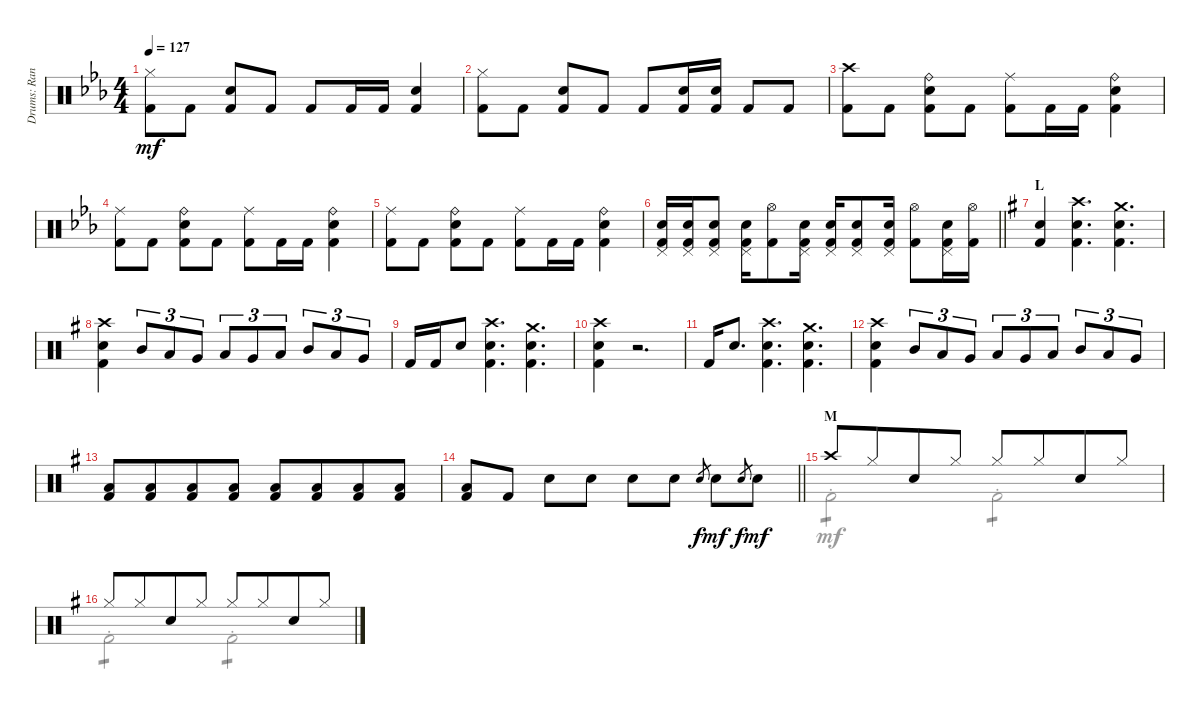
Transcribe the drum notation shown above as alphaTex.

\track ("Drums: Randy" "Drums: Ran") {instrument percussion}
\staff {score}
\articulation defaults
\voice
\ts (4 4)
\tempo 127
\clef neutral
\ks eb
("Hi-Hat (closed)" "Kick (hit) 2").8{dy mf} "Kick (hit) 2".8 ("Snare (hit) 2" "Kick (hit) 2").8 "Kick (hit) 2".8 "Kick (hit) 2".8 "Kick (hit) 2".16 "Kick (hit) 2".16 ("Snare (hit) 2" "Kick (hit) 2").4 |
("Hi-Hat (closed)" "Kick (hit) 2").8 "Kick (hit) 2".8 ("Snare (hit) 2" "Kick (hit) 2").8 "Kick (hit) 2".8 "Kick (hit) 2".8 ("Snare (hit) 2" "Kick (hit) 2").16 ("Snare (hit) 2" "Kick (hit) 2").16 "Kick (hit) 2".8 "Kick (hit) 2".8 |
("Crash high (hit)" "Kick (hit) 2").8 "Kick (hit) 2".8 ("Ride (bell)" "Snare (hit) 2" "Kick (hit) 2").8 "Kick (hit) 2".8 ("Ride (middle)" "Kick (hit) 2").8 "Kick (hit) 2".16 "Kick (hit) 2".16 ("Ride (bell)" "Snare (hit) 2" "Kick (hit) 2").4 |
("Ride (middle)" "Kick (hit) 2").8 "Kick (hit) 2".8 ("Ride (bell)" "Snare (hit) 2" "Kick (hit) 2").8 "Kick (hit) 2".8 ("Ride (middle)" "Kick (hit) 2").8 "Kick (hit) 2".16 "Kick (hit) 2".16 ("Ride (bell)" "Snare (hit) 2" "Kick (hit) 2").4 |
("Ride (middle)" "Kick (hit) 2").8 "Kick (hit) 2".8 ("Ride (bell)" "Snare (hit) 2" "Kick (hit) 2").8 "Kick (hit) 2".8 ("Ride (middle)" "Kick (hit) 2").8 "Kick (hit) 2".16 "Kick (hit) 2".16 ("Ride (bell)" "Snare (hit) 2" "Kick (hit) 2").4 |
\barLineRight lightlight
("Pedal Hi-Hat (hit)" "Snare (hit) 2" "Kick (hit) 2").16 ("Pedal Hi-Hat (hit)" "Snare (hit) 2" "Kick (hit) 2").16 ("Pedal Hi-Hat (hit)" "Snare (hit) 2" "Kick (hit) 2").8 ("Pedal Hi-Hat (hit)" "Snare (hit) 2" "Kick (hit) 2").16 ("Hi-Hat (open)" "Kick (hit) 2").8 ("Pedal Hi-Hat (hit)" "Snare (hit) 2" "Kick (hit) 2").16 ("Pedal Hi-Hat (hit)" "Snare (hit) 2" "Kick (hit) 2").16 ("Pedal Hi-Hat (hit)" "Snare (hit) 2" "Kick (hit) 2").8 ("Pedal Hi-Hat (hit)" "Snare (hit) 2" "Kick (hit) 2").16 ("Hi-Hat (open)" "Kick (hit) 2").8 ("Pedal Hi-Hat (hit)" "Snare (hit) 2" "Kick (hit) 2").16 ("Hi-Hat (open)" "Kick (hit) 2").16 |
\section ("" "L")
\ks g
("Snare (hit) 2" "Kick (hit) 2").4 ("Crash high (hit)" "Snare (hit) 2" "Kick (hit) 2").4{d} ("Crash medium (hit)" "Snare (hit) 2" "Kick (hit) 2").4{d} |
("Crash high (hit)" "Snare (hit) 2" "Kick (hit) 2").4 "Mid Tom (hit)".8{tu (3 2)} "Low Tom (hit)".8{tu (3 2)} "Very Low Tom (hit)".8{tu (3 2)} "Low Floor Tom (hit)".8{tu (3 2)} "Very Low Tom (hit)".8{tu (3 2)} "Low Floor Tom (hit)".8{tu (3 2)} "Mid Tom (hit)".8{tu (3 2)} "Low Tom (hit)".8{tu (3 2)} "Very Low Tom (hit)".8{tu (3 2)} |
"Kick (hit) 2".16 "Kick (hit) 2".16 "Snare (hit) 2".8 ("Crash high (hit)" "Snare (hit) 2" "Kick (hit) 2").4{d} ("Crash medium (hit)" "Snare (hit) 2" "Kick (hit) 2").4{d} |
("Crash high (hit)" "Snare (hit) 2" "Kick (hit) 2").4 r.2{d} |
"Kick (hit) 2".16 "Snare (hit) 2".8{d} ("Crash high (hit)" "Snare (hit) 2" "Kick (hit) 2").4{d} ("Crash medium (hit)" "Snare (hit) 2" "Kick (hit) 2").4{d} |
("Crash high (hit)" "Snare (hit) 2" "Kick (hit) 2").4 "Mid Tom (hit)".8{tu (3 2)} "Low Tom (hit)".8{tu (3 2)} "Very Low Tom (hit)".8{tu (3 2)} "Low Floor Tom (hit)".8{tu (3 2)} "Very Low Tom (hit)".8{tu (3 2)} "Low Floor Tom (hit)".8{tu (3 2)} "Mid Tom (hit)".8{tu (3 2)} "Low Tom (hit)".8{tu (3 2)} "Very Low Tom (hit)".8{tu (3 2)} |
("Low Tom (hit)" "Kick (hit) 2").8 ("Low Tom (hit)" "Kick (hit) 2").8{beam merge} ("Low Tom (hit)" "Kick (hit) 2").8 ("Low Tom (hit)" "Kick (hit) 2").8 ("Low Tom (hit)" "Kick (hit) 2").8 ("Low Tom (hit)" "Kick (hit) 2").8{beam merge} ("Low Tom (hit)" "Kick (hit) 2").8 ("Low Tom (hit)" "Kick (hit) 2").8 |
\barLineRight lightlight
("Low Tom (hit)" "Kick (hit) 2").8 "Kick (hit) 2".8 "Snare (hit) 2".8 "Snare (hit) 2".8 "Snare (hit) 2".8 "Snare (hit) 2".8 "Electric Snare (hit)".8{gr dy f} "Snare (hit) 2".8{dy mf} "Electric Snare (hit)".8{gr dy f} "Snare (hit) 2".8{dy mf} |
\section ("" "M")
"Crash high (hit)".8 "Hi-Hat (closed)".8{beam merge} "Snare (hit) 2".8 "Hi-Hat (closed)".8 "Hi-Hat (closed)".8 "Hi-Hat (closed)".8{beam merge} "Snare (hit) 2".8 "Hi-Hat (closed)".8 |
"Hi-Hat (closed)".8 "Hi-Hat (closed)".8{beam merge} "Snare (hit) 2".8 "Hi-Hat (closed)".8 "Hi-Hat (closed)".8 "Hi-Hat (closed)".8{beam merge} "Snare (hit) 2".8 "Hi-Hat (closed)".8
\voice
\clef neutral
\ottava regular
\simile none
\ks eb
|
|
|
|
|
\barLineRight lightlight
|
\ks g
|
|
|
|
|
|
|
\barLineRight lightlight
|
"Kick (hit) 2"{st}.2{tp 1} "Kick (hit) 2"{st}.2{tp 1} |
"Kick (hit) 2"{st}.2{tp 1} "Kick (hit) 2"{st}.2{tp 1}
